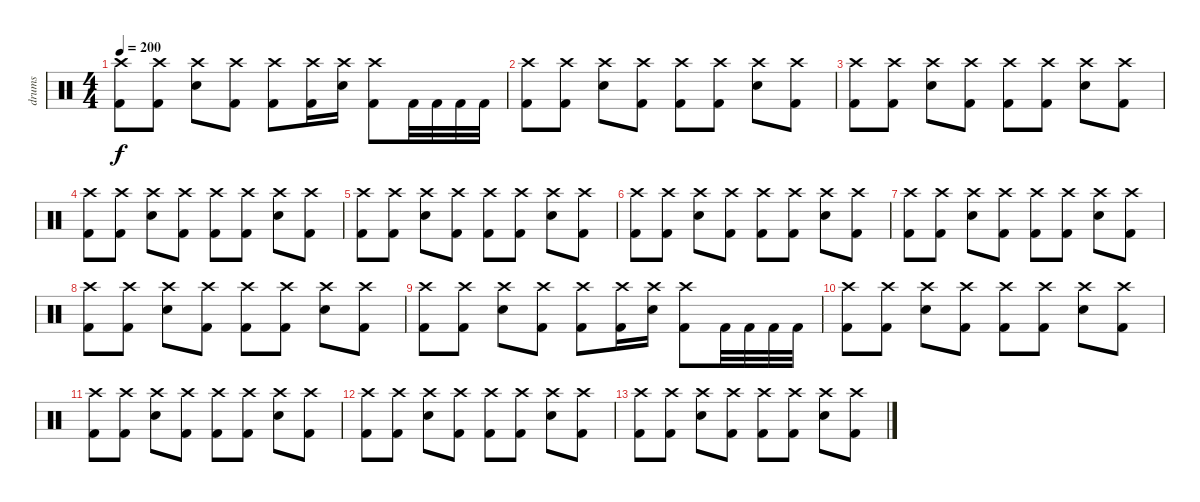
\track ("drums" "drums") {instrument percussion}
\staff {score}
\articulation defaults
\ts (4 4)
\tempo 200
\clef neutral
\ks c
("Crash high (hit)" "Kick (hit) 2").8{dy f} ("Crash high (hit)" "Kick (hit) 2").8 ("Crash high (hit)" "Electric Snare (hit)").8 ("Crash high (hit)" "Kick (hit) 2").8 ("Crash high (hit)" "Kick (hit) 2").8 ("Crash high (hit)" "Kick (hit) 2").16 ("Crash high (hit)" "Electric Snare (hit)").16 ("Crash high (hit)" "Kick (hit) 2").8 "Kick (hit) 2".32 "Kick (hit) 2".32 "Kick (hit) 2".32 "Kick (hit) 2".32 |
("Crash high (hit)" "Kick (hit) 2").8 ("Crash high (hit)" "Kick (hit) 2").8 ("Crash high (hit)" "Electric Snare (hit)").8 ("Crash high (hit)" "Kick (hit) 2").8 ("Crash high (hit)" "Kick (hit) 2").8 ("Crash high (hit)" "Kick (hit) 2").8 ("Crash high (hit)" "Electric Snare (hit)").8 ("Crash high (hit)" "Kick (hit) 2").8 |
("Crash high (hit)" "Kick (hit) 2").8 ("Crash high (hit)" "Kick (hit) 2").8 ("Crash high (hit)" "Electric Snare (hit)").8 ("Crash high (hit)" "Kick (hit) 2").8 ("Crash high (hit)" "Kick (hit) 2").8 ("Crash high (hit)" "Kick (hit) 2").8 ("Crash high (hit)" "Electric Snare (hit)").8 ("Crash high (hit)" "Kick (hit) 2").8 |
("Crash high (hit)" "Kick (hit) 2").8 ("Crash high (hit)" "Kick (hit) 2").8 ("Crash high (hit)" "Electric Snare (hit)").8 ("Crash high (hit)" "Kick (hit) 2").8 ("Crash high (hit)" "Kick (hit) 2").8 ("Crash high (hit)" "Kick (hit) 2").8 ("Crash high (hit)" "Electric Snare (hit)").8 ("Crash high (hit)" "Kick (hit) 2").8 |
("Crash high (hit)" "Kick (hit) 2").8 ("Crash high (hit)" "Kick (hit) 2").8 ("Crash high (hit)" "Electric Snare (hit)").8 ("Crash high (hit)" "Kick (hit) 2").8 ("Crash high (hit)" "Kick (hit) 2").8 ("Crash high (hit)" "Kick (hit) 2").8 ("Crash high (hit)" "Electric Snare (hit)").8 ("Crash high (hit)" "Kick (hit) 2").8 |
("Crash high (hit)" "Kick (hit) 2").8 ("Crash high (hit)" "Kick (hit) 2").8 ("Crash high (hit)" "Electric Snare (hit)").8 ("Crash high (hit)" "Kick (hit) 2").8 ("Crash high (hit)" "Kick (hit) 2").8 ("Crash high (hit)" "Kick (hit) 2").8 ("Crash high (hit)" "Electric Snare (hit)").8 ("Crash high (hit)" "Kick (hit) 2").8 |
("Crash high (hit)" "Kick (hit) 2").8 ("Crash high (hit)" "Kick (hit) 2").8 ("Crash high (hit)" "Electric Snare (hit)").8 ("Crash high (hit)" "Kick (hit) 2").8 ("Crash high (hit)" "Kick (hit) 2").8 ("Crash high (hit)" "Kick (hit) 2").8 ("Crash high (hit)" "Electric Snare (hit)").8 ("Crash high (hit)" "Kick (hit) 2").8 |
("Crash high (hit)" "Kick (hit) 2").8 ("Crash high (hit)" "Kick (hit) 2").8 ("Crash high (hit)" "Electric Snare (hit)").8 ("Crash high (hit)" "Kick (hit) 2").8 ("Crash high (hit)" "Kick (hit) 2").8 ("Crash high (hit)" "Kick (hit) 2").8 ("Crash high (hit)" "Electric Snare (hit)").8 ("Crash high (hit)" "Kick (hit) 2").8 |
("Crash high (hit)" "Kick (hit) 2").8 ("Crash high (hit)" "Kick (hit) 2").8 ("Crash high (hit)" "Electric Snare (hit)").8 ("Crash high (hit)" "Kick (hit) 2").8 ("Crash high (hit)" "Kick (hit) 2").8 ("Crash high (hit)" "Kick (hit) 2").16 ("Crash high (hit)" "Electric Snare (hit)").16 ("Crash high (hit)" "Kick (hit) 2").8 "Kick (hit) 2".32 "Kick (hit) 2".32 "Kick (hit) 2".32 "Kick (hit) 2".32 |
("Crash high (hit)" "Kick (hit) 2").8 ("Crash high (hit)" "Kick (hit) 2").8 ("Crash high (hit)" "Electric Snare (hit)").8 ("Crash high (hit)" "Kick (hit) 2").8 ("Crash high (hit)" "Kick (hit) 2").8 ("Crash high (hit)" "Kick (hit) 2").8 ("Crash high (hit)" "Electric Snare (hit)").8 ("Crash high (hit)" "Kick (hit) 2").8 |
("Crash high (hit)" "Kick (hit) 2").8 ("Crash high (hit)" "Kick (hit) 2").8 ("Crash high (hit)" "Electric Snare (hit)").8 ("Crash high (hit)" "Kick (hit) 2").8 ("Crash high (hit)" "Kick (hit) 2").8 ("Crash high (hit)" "Kick (hit) 2").8 ("Crash high (hit)" "Electric Snare (hit)").8 ("Crash high (hit)" "Kick (hit) 2").8 |
("Crash high (hit)" "Kick (hit) 2").8 ("Crash high (hit)" "Kick (hit) 2").8 ("Crash high (hit)" "Electric Snare (hit)").8 ("Crash high (hit)" "Kick (hit) 2").8 ("Crash high (hit)" "Kick (hit) 2").8 ("Crash high (hit)" "Kick (hit) 2").8 ("Crash high (hit)" "Electric Snare (hit)").8 ("Crash high (hit)" "Kick (hit) 2").8 |
("Crash high (hit)" "Kick (hit) 2").8 ("Crash high (hit)" "Kick (hit) 2").8 ("Crash high (hit)" "Electric Snare (hit)").8 ("Crash high (hit)" "Kick (hit) 2").8 ("Crash high (hit)" "Kick (hit) 2").8 ("Crash high (hit)" "Kick (hit) 2").8 ("Crash high (hit)" "Electric Snare (hit)").8 ("Crash high (hit)" "Kick (hit) 2").8
